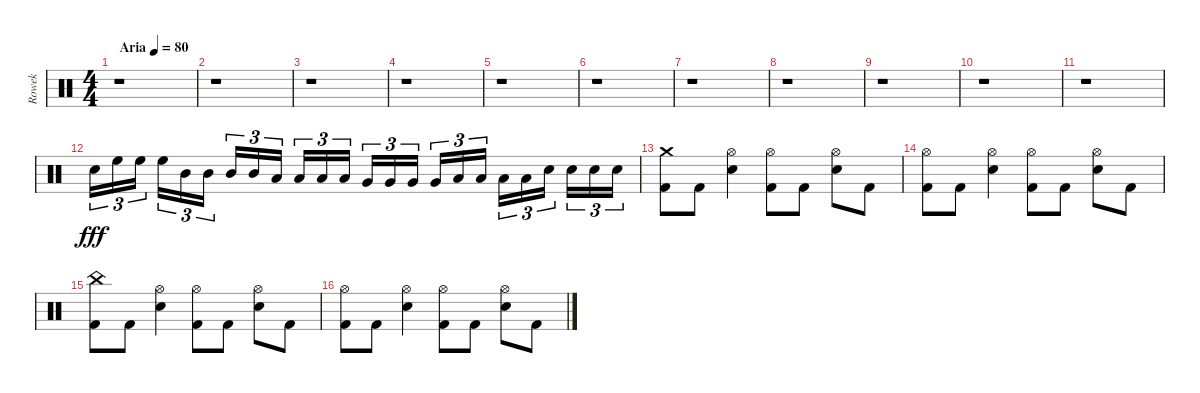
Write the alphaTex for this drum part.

\track ("Rowek" "Rowek") {instrument percussion}
\staff {score}
\articulation defaults
\ts (4 4)
\tempo (80 "Aria")
\clef neutral
\ks c
r.1{dy fff} |
r.1 |
r.1 |
r.1 |
r.1 |
r.1 |
r.1 |
r.1 |
r.1 |
r.1 |
r.1 |
"Electric Snare (hit)".16{tu (3 2)} "High Floor Tom (hit)".16{tu (3 2)} "High Floor Tom (hit)".16{tu (3 2) beam splitsecondary} "High Floor Tom (hit)".16{tu (3 2)} "Mid Tom (hit)".16{tu (3 2)} "Mid Tom (hit)".16{tu (3 2)} "Mid Tom (hit)".16{tu (3 2)} "Mid Tom (hit)".16{tu (3 2)} "Low Tom (hit)".16{tu (3 2) beam splitsecondary} "Low Tom (hit)".16{tu (3 2)} "Low Tom (hit)".16{tu (3 2)} "Low Tom (hit)".16{tu (3 2)} "Very Low Tom (hit)".16{tu (3 2)} "Very Low Tom (hit)".16{tu (3 2)} "Very Low Tom (hit)".16{tu (3 2) beam splitsecondary} "Very Low Tom (hit)".16{tu (3 2)} "Low Floor Tom (hit)".16{tu (3 2)} "Low Floor Tom (hit)".16{tu (3 2)} "Low Floor Tom (hit)".16{tu (3 2)} "Low Floor Tom (hit)".16{tu (3 2)} "Electric Snare (hit)".16{tu (3 2) beam splitsecondary} "Electric Snare (hit)".16{tu (3 2)} "Electric Snare (hit)".16{tu (3 2)} "Electric Snare (hit)".16{tu (3 2)} |
("Crash medium (hit)" "Kick (hit) 2").8 "Kick (hit) 2".8 ("Hi-Hat (open)" "Electric Snare (hit)").4 ("Hi-Hat (open)" "Kick (hit) 2").8 "Kick (hit) 2".8 ("Hi-Hat (open)" "Electric Snare (hit)").8 "Kick (hit) 2".8 |
("Hi-Hat (open)" "Kick (hit) 2").8 "Kick (hit) 2".8 ("Hi-Hat (open)" "Electric Snare (hit)").4 ("Hi-Hat (open)" "Kick (hit) 2").8 "Kick (hit) 2".8 ("Hi-Hat (open)" "Electric Snare (hit)").8 "Kick (hit) 2".8 |
("China (hit)" "Kick (hit) 2").8 "Kick (hit) 2".8 ("Hi-Hat (open)" "Electric Snare (hit)").4 ("Hi-Hat (open)" "Kick (hit) 2").8 "Kick (hit) 2".8 ("Hi-Hat (open)" "Electric Snare (hit)").8 "Kick (hit) 2".8 |
("Hi-Hat (open)" "Kick (hit) 2").8 "Kick (hit) 2".8 ("Hi-Hat (open)" "Electric Snare (hit)").4 ("Hi-Hat (open)" "Kick (hit) 2").8 "Kick (hit) 2".8 ("Hi-Hat (open)" "Electric Snare (hit)").8 "Kick (hit) 2".8
